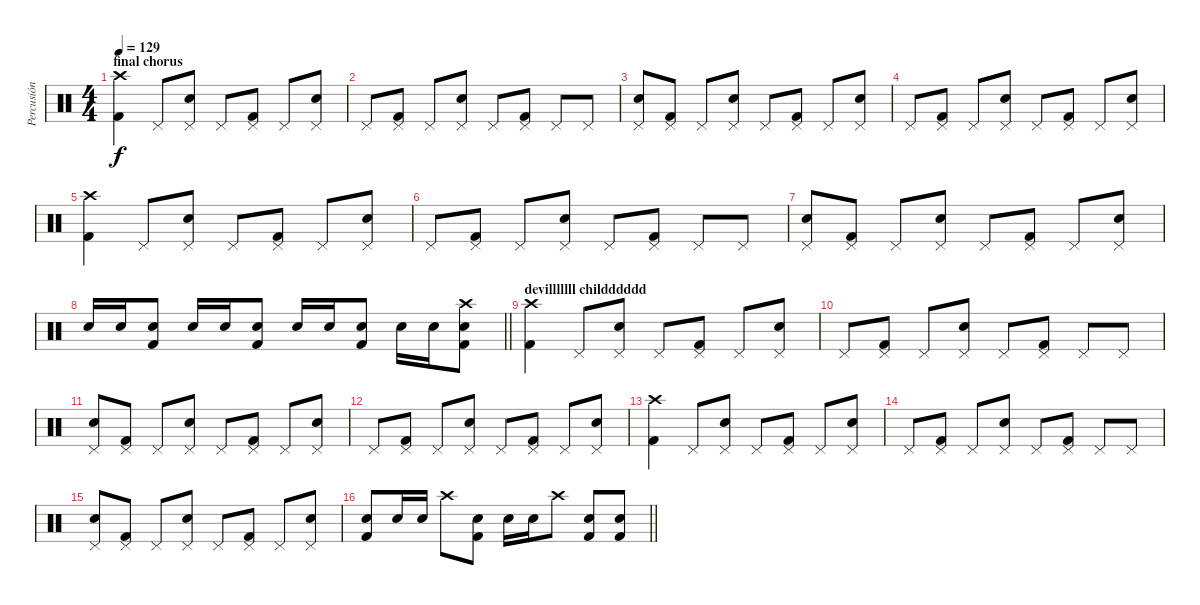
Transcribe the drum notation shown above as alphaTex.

\track ("Percusión" "Percusión") {instrument percussion}
\staff {score}
\articulation defaults
\ts (4 4)
\section ("" "final chorus")
\tempo 129
\clef neutral
\ks c
("Crash high (hit)" "Kick (hit) 2").4{dy f} "Pedal Hi-Hat (hit)".8 ("Electric Snare (hit)" "Pedal Hi-Hat (hit)").8 "Pedal Hi-Hat (hit)".8 ("Pedal Hi-Hat (hit)" "Kick (hit) 2").8 "Pedal Hi-Hat (hit)".8 ("Electric Snare (hit)" "Pedal Hi-Hat (hit)").8 |
"Pedal Hi-Hat (hit)".8 ("Pedal Hi-Hat (hit)" "Kick (hit) 2").8 "Pedal Hi-Hat (hit)".8 ("Electric Snare (hit)" "Pedal Hi-Hat (hit)").8 "Pedal Hi-Hat (hit)".8 ("Pedal Hi-Hat (hit)" "Kick (hit) 2").8 "Pedal Hi-Hat (hit)".8 "Pedal Hi-Hat (hit)".8 |
("Electric Snare (hit)" "Pedal Hi-Hat (hit)").8 ("Pedal Hi-Hat (hit)" "Kick (hit) 2").8 "Pedal Hi-Hat (hit)".8 ("Electric Snare (hit)" "Pedal Hi-Hat (hit)").8 "Pedal Hi-Hat (hit)".8 ("Pedal Hi-Hat (hit)" "Kick (hit) 2").8 "Pedal Hi-Hat (hit)".8 ("Electric Snare (hit)" "Pedal Hi-Hat (hit)").8 |
"Pedal Hi-Hat (hit)".8 ("Pedal Hi-Hat (hit)" "Kick (hit) 2").8 "Pedal Hi-Hat (hit)".8 ("Electric Snare (hit)" "Pedal Hi-Hat (hit)").8 "Pedal Hi-Hat (hit)".8 ("Pedal Hi-Hat (hit)" "Kick (hit) 2").8 "Pedal Hi-Hat (hit)".8 ("Electric Snare (hit)" "Pedal Hi-Hat (hit)").8 |
("Crash high (hit)" "Kick (hit) 2").4 "Pedal Hi-Hat (hit)".8 ("Electric Snare (hit)" "Pedal Hi-Hat (hit)").8 "Pedal Hi-Hat (hit)".8 ("Pedal Hi-Hat (hit)" "Kick (hit) 2").8 "Pedal Hi-Hat (hit)".8 ("Electric Snare (hit)" "Pedal Hi-Hat (hit)").8 |
"Pedal Hi-Hat (hit)".8 ("Pedal Hi-Hat (hit)" "Kick (hit) 2").8 "Pedal Hi-Hat (hit)".8 ("Electric Snare (hit)" "Pedal Hi-Hat (hit)").8 "Pedal Hi-Hat (hit)".8 ("Pedal Hi-Hat (hit)" "Kick (hit) 2").8 "Pedal Hi-Hat (hit)".8 "Pedal Hi-Hat (hit)".8 |
("Electric Snare (hit)" "Pedal Hi-Hat (hit)").8 ("Pedal Hi-Hat (hit)" "Kick (hit) 2").8 "Pedal Hi-Hat (hit)".8 ("Electric Snare (hit)" "Pedal Hi-Hat (hit)").8 "Pedal Hi-Hat (hit)".8 ("Pedal Hi-Hat (hit)" "Kick (hit) 2").8 "Pedal Hi-Hat (hit)".8 ("Electric Snare (hit)" "Pedal Hi-Hat (hit)").8 |
\barLineRight lightlight "Electric Snare (hit)".16 "Electric Snare (hit)".16
("Snare (hit) 2" "Kick (hit) 2").8 "Electric Snare (hit)".16 "Electric Snare (hit)".16 ("Snare (hit) 2" "Kick (hit) 2").8 "Electric Snare (hit)".16 "Electric Snare (hit)".16 ("Snare (hit) 2" "Kick (hit) 2").8 "Electric Snare (hit)".16 "Electric Snare (hit)".16 ("Crash high (hit)" "Snare (hit) 2" "Kick (hit) 2").8 |
\section ("" "devilllllll childddddd")
("Crash high (hit)" "Kick (hit) 2").4 "Pedal Hi-Hat (hit)".8 ("Electric Snare (hit)" "Pedal Hi-Hat (hit)").8 "Pedal Hi-Hat (hit)".8 ("Pedal Hi-Hat (hit)" "Kick (hit) 2").8 "Pedal Hi-Hat (hit)".8 ("Electric Snare (hit)" "Pedal Hi-Hat (hit)").8 |
"Pedal Hi-Hat (hit)".8 ("Pedal Hi-Hat (hit)" "Kick (hit) 2").8 "Pedal Hi-Hat (hit)".8 ("Electric Snare (hit)" "Pedal Hi-Hat (hit)").8 "Pedal Hi-Hat (hit)".8 ("Pedal Hi-Hat (hit)" "Kick (hit) 2").8 "Pedal Hi-Hat (hit)".8 "Pedal Hi-Hat (hit)".8 |
("Electric Snare (hit)" "Pedal Hi-Hat (hit)").8 ("Pedal Hi-Hat (hit)" "Kick (hit) 2").8 "Pedal Hi-Hat (hit)".8 ("Electric Snare (hit)" "Pedal Hi-Hat (hit)").8 "Pedal Hi-Hat (hit)".8 ("Pedal Hi-Hat (hit)" "Kick (hit) 2").8 "Pedal Hi-Hat (hit)".8 ("Electric Snare (hit)" "Pedal Hi-Hat (hit)").8 |
"Pedal Hi-Hat (hit)".8 ("Pedal Hi-Hat (hit)" "Kick (hit) 2").8 "Pedal Hi-Hat (hit)".8 ("Electric Snare (hit)" "Pedal Hi-Hat (hit)").8 "Pedal Hi-Hat (hit)".8 ("Pedal Hi-Hat (hit)" "Kick (hit) 2").8 "Pedal Hi-Hat (hit)".8 ("Electric Snare (hit)" "Pedal Hi-Hat (hit)").8 |
("Crash high (hit)" "Kick (hit) 2").4 "Pedal Hi-Hat (hit)".8 ("Electric Snare (hit)" "Pedal Hi-Hat (hit)").8 "Pedal Hi-Hat (hit)".8 ("Pedal Hi-Hat (hit)" "Kick (hit) 2").8 "Pedal Hi-Hat (hit)".8 ("Electric Snare (hit)" "Pedal Hi-Hat (hit)").8 |
"Pedal Hi-Hat (hit)".8 ("Pedal Hi-Hat (hit)" "Kick (hit) 2").8 "Pedal Hi-Hat (hit)".8 ("Electric Snare (hit)" "Pedal Hi-Hat (hit)").8 "Pedal Hi-Hat (hit)".8 ("Pedal Hi-Hat (hit)" "Kick (hit) 2").8 "Pedal Hi-Hat (hit)".8 "Pedal Hi-Hat (hit)".8 |
("Electric Snare (hit)" "Pedal Hi-Hat (hit)").8 ("Pedal Hi-Hat (hit)" "Kick (hit) 2").8 "Pedal Hi-Hat (hit)".8 ("Electric Snare (hit)" "Pedal Hi-Hat (hit)").8 "Pedal Hi-Hat (hit)".8 ("Pedal Hi-Hat (hit)" "Kick (hit) 2").8 "Pedal Hi-Hat (hit)".8 ("Electric Snare (hit)" "Pedal Hi-Hat (hit)").8 |
\barLineRight lightlight
("Electric Snare (hit)" "Kick (hit) 2").8 "Electric Snare (hit)".16 "Electric Snare (hit)".16 "Crash high (hit)".8 ("Electric Snare (hit)" "Kick (hit) 2").8 "Electric Snare (hit)".16 "Electric Snare (hit)".16 "Crash high (hit)".8 ("Electric Snare (hit)" "Kick (hit) 2").8 ("Electric Snare (hit)" "Kick (hit) 2").8
